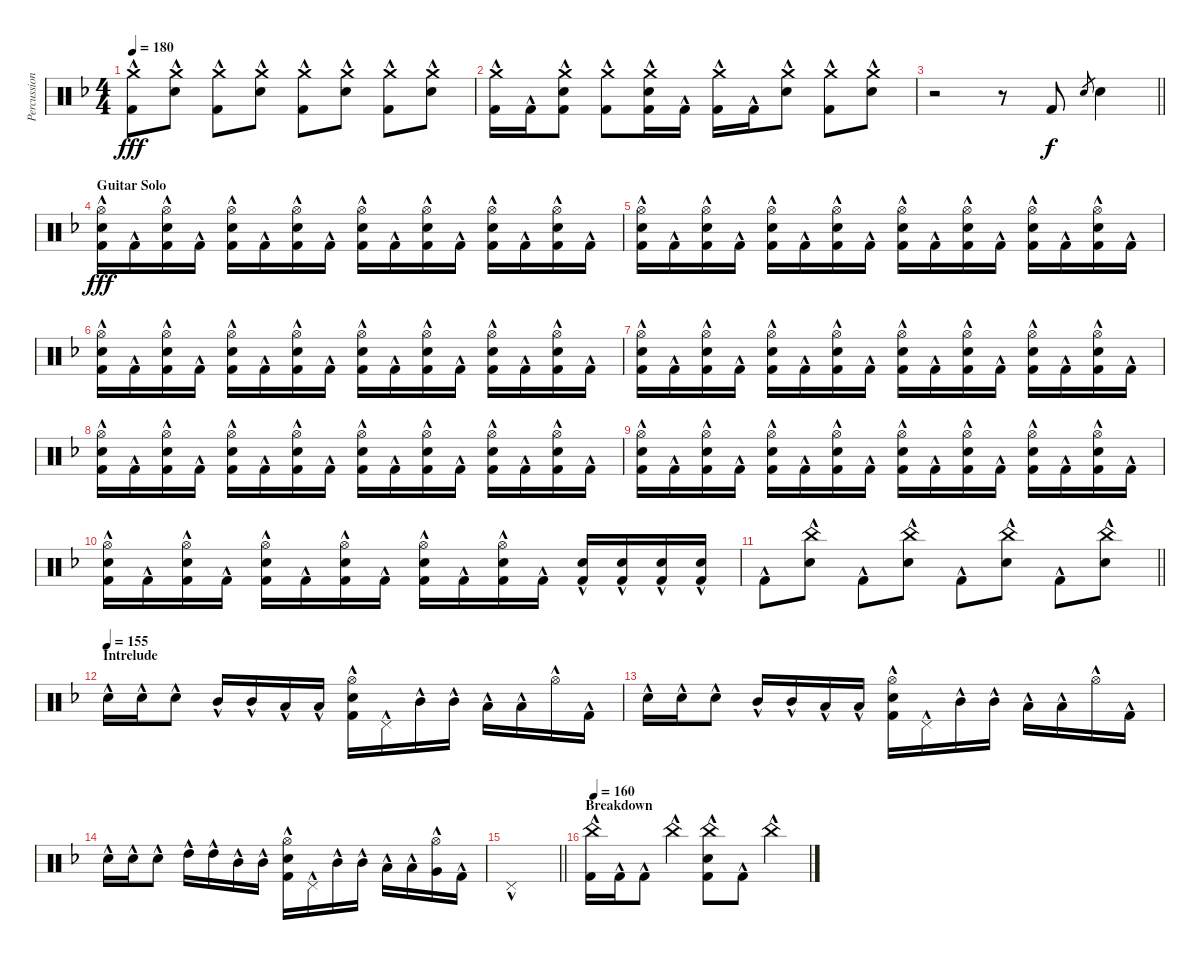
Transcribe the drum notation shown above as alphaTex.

\track ("Percussion" "Percussion") {instrument percussion}
\staff {score}
\articulation defaults
\ts (4 4)
\tempo 180
\clef neutral
\ks f
("Crash medium (hit)"{hac} "Kick (hit) 2"{hac}).8{dy fff} ("Crash medium (hit)"{hac} "Electric Snare (hit)"{hac}).8 ("Crash medium (hit)"{hac} "Kick (hit) 2"{hac}).8 ("Crash medium (hit)"{hac} "Electric Snare (hit)"{hac}).8 ("Crash medium (hit)"{hac} "Kick (hit) 2"{hac}).8 ("Crash medium (hit)"{hac} "Electric Snare (hit)"{hac}).8 ("Crash medium (hit)"{hac} "Kick (hit) 2"{hac}).8 ("Crash medium (hit)"{hac} "Electric Snare (hit)"{hac}).8 |
("Crash medium (hit)"{hac} "Kick (hit) 2"{hac}).16 "Kick (hit) 2"{hac}.16 ("Crash medium (hit)"{hac} "Electric Snare (hit)"{hac} "Kick (hit) 2"{hac}).8 ("Crash medium (hit)"{hac} "Kick (hit) 2"{hac}).8 ("Crash medium (hit)"{hac} "Electric Snare (hit)"{hac} "Kick (hit) 2"{hac}).16 "Kick (hit) 2"{hac}.16 ("Crash medium (hit)"{hac} "Kick (hit) 2"{hac}).16 "Kick (hit) 2"{hac}.16 ("Crash medium (hit)"{hac} "Electric Snare (hit)"{hac}).8 ("Crash medium (hit)"{hac} "Kick (hit) 2"{hac}).8 ("Crash medium (hit)"{hac} "Electric Snare (hit)"{hac}).8 |
\barLineRight lightlight
r.2 r.8 "Kick (hit) 2".8{dy f} "Electric Snare (hit)".8{gr} "Electric Snare (hit)".4 |
\section ("" "Guitar Solo")
("Hi-Hat (open)"{hac} "Electric Snare (hit)"{hac} "Kick (hit) 2"{hac}).16{dy fff} "Kick (hit) 2"{hac}.16 ("Hi-Hat (open)"{hac} "Electric Snare (hit)"{hac} "Kick (hit) 2"{hac}).16 "Kick (hit) 2"{hac}.16 ("Hi-Hat (open)"{hac} "Electric Snare (hit)"{hac} "Kick (hit) 2"{hac}).16 "Kick (hit) 2"{hac}.16 ("Hi-Hat (open)"{hac} "Electric Snare (hit)"{hac} "Kick (hit) 2"{hac}).16 "Kick (hit) 2"{hac}.16 ("Hi-Hat (open)"{hac} "Electric Snare (hit)"{hac} "Kick (hit) 2"{hac}).16 "Kick (hit) 2"{hac}.16 ("Hi-Hat (open)"{hac} "Electric Snare (hit)"{hac} "Kick (hit) 2"{hac}).16 "Kick (hit) 2"{hac}.16 ("Hi-Hat (open)"{hac} "Electric Snare (hit)"{hac} "Kick (hit) 2"{hac}).16 "Kick (hit) 2"{hac}.16 ("Hi-Hat (open)"{hac} "Electric Snare (hit)"{hac} "Kick (hit) 2"{hac}).16 "Kick (hit) 2"{hac}.16 |
("Hi-Hat (open)"{hac} "Electric Snare (hit)"{hac} "Kick (hit) 2"{hac}).16 "Kick (hit) 2"{hac}.16 ("Hi-Hat (open)"{hac} "Electric Snare (hit)"{hac} "Kick (hit) 2"{hac}).16 "Kick (hit) 2"{hac}.16 ("Hi-Hat (open)"{hac} "Electric Snare (hit)"{hac} "Kick (hit) 2"{hac}).16 "Kick (hit) 2"{hac}.16 ("Hi-Hat (open)"{hac} "Electric Snare (hit)"{hac} "Kick (hit) 2"{hac}).16 "Kick (hit) 2"{hac}.16 ("Hi-Hat (open)"{hac} "Electric Snare (hit)"{hac} "Kick (hit) 2"{hac}).16 "Kick (hit) 2"{hac}.16 ("Hi-Hat (open)"{hac} "Electric Snare (hit)"{hac} "Kick (hit) 2"{hac}).16 "Kick (hit) 2"{hac}.16 ("Hi-Hat (open)"{hac} "Electric Snare (hit)"{hac} "Kick (hit) 2"{hac}).16 "Kick (hit) 2"{hac}.16 ("Hi-Hat (open)"{hac} "Electric Snare (hit)"{hac} "Kick (hit) 2"{hac}).16 "Kick (hit) 2"{hac}.16 |
("Hi-Hat (open)"{hac} "Electric Snare (hit)"{hac} "Kick (hit) 2"{hac}).16 "Kick (hit) 2"{hac}.16 ("Hi-Hat (open)"{hac} "Electric Snare (hit)"{hac} "Kick (hit) 2"{hac}).16 "Kick (hit) 2"{hac}.16 ("Hi-Hat (open)"{hac} "Electric Snare (hit)"{hac} "Kick (hit) 2"{hac}).16 "Kick (hit) 2"{hac}.16 ("Hi-Hat (open)"{hac} "Electric Snare (hit)"{hac} "Kick (hit) 2"{hac}).16 "Kick (hit) 2"{hac}.16 ("Hi-Hat (open)"{hac} "Electric Snare (hit)"{hac} "Kick (hit) 2"{hac}).16 "Kick (hit) 2"{hac}.16 ("Hi-Hat (open)"{hac} "Electric Snare (hit)"{hac} "Kick (hit) 2"{hac}).16 "Kick (hit) 2"{hac}.16 ("Hi-Hat (open)"{hac} "Electric Snare (hit)"{hac} "Kick (hit) 2"{hac}).16 "Kick (hit) 2"{hac}.16 ("Hi-Hat (open)"{hac} "Electric Snare (hit)"{hac} "Kick (hit) 2"{hac}).16 "Kick (hit) 2"{hac}.16 |
("Hi-Hat (open)"{hac} "Electric Snare (hit)"{hac} "Kick (hit) 2"{hac}).16 "Kick (hit) 2"{hac}.16 ("Hi-Hat (open)"{hac} "Electric Snare (hit)"{hac} "Kick (hit) 2"{hac}).16 "Kick (hit) 2"{hac}.16 ("Hi-Hat (open)"{hac} "Electric Snare (hit)"{hac} "Kick (hit) 2"{hac}).16 "Kick (hit) 2"{hac}.16 ("Hi-Hat (open)"{hac} "Electric Snare (hit)"{hac} "Kick (hit) 2"{hac}).16 "Kick (hit) 2"{hac}.16 ("Hi-Hat (open)"{hac} "Electric Snare (hit)"{hac} "Kick (hit) 2"{hac}).16 "Kick (hit) 2"{hac}.16 ("Hi-Hat (open)"{hac} "Electric Snare (hit)"{hac} "Kick (hit) 2"{hac}).16 "Kick (hit) 2"{hac}.16 ("Hi-Hat (open)"{hac} "Electric Snare (hit)"{hac} "Kick (hit) 2"{hac}).16 "Kick (hit) 2"{hac}.16 ("Hi-Hat (open)"{hac} "Electric Snare (hit)"{hac} "Kick (hit) 2"{hac}).16 "Kick (hit) 2"{hac}.16 |
("Hi-Hat (open)"{hac} "Electric Snare (hit)"{hac} "Kick (hit) 2"{hac}).16 "Kick (hit) 2"{hac}.16 ("Hi-Hat (open)"{hac} "Electric Snare (hit)"{hac} "Kick (hit) 2"{hac}).16 "Kick (hit) 2"{hac}.16 ("Hi-Hat (open)"{hac} "Electric Snare (hit)"{hac} "Kick (hit) 2"{hac}).16 "Kick (hit) 2"{hac}.16 ("Hi-Hat (open)"{hac} "Electric Snare (hit)"{hac} "Kick (hit) 2"{hac}).16 "Kick (hit) 2"{hac}.16 ("Hi-Hat (open)"{hac} "Electric Snare (hit)"{hac} "Kick (hit) 2"{hac}).16 "Kick (hit) 2"{hac}.16 ("Hi-Hat (open)"{hac} "Electric Snare (hit)"{hac} "Kick (hit) 2"{hac}).16 "Kick (hit) 2"{hac}.16 ("Hi-Hat (open)"{hac} "Electric Snare (hit)"{hac} "Kick (hit) 2"{hac}).16 "Kick (hit) 2"{hac}.16 ("Hi-Hat (open)"{hac} "Electric Snare (hit)"{hac} "Kick (hit) 2"{hac}).16 "Kick (hit) 2"{hac}.16 |
("Hi-Hat (open)"{hac} "Electric Snare (hit)"{hac} "Kick (hit) 2"{hac}).16 "Kick (hit) 2"{hac}.16 ("Hi-Hat (open)"{hac} "Electric Snare (hit)"{hac} "Kick (hit) 2"{hac}).16 "Kick (hit) 2"{hac}.16 ("Hi-Hat (open)"{hac} "Electric Snare (hit)"{hac} "Kick (hit) 2"{hac}).16 "Kick (hit) 2"{hac}.16 ("Hi-Hat (open)"{hac} "Electric Snare (hit)"{hac} "Kick (hit) 2"{hac}).16 "Kick (hit) 2"{hac}.16 ("Hi-Hat (open)"{hac} "Electric Snare (hit)"{hac} "Kick (hit) 2"{hac}).16 "Kick (hit) 2"{hac}.16 ("Hi-Hat (open)"{hac} "Electric Snare (hit)"{hac} "Kick (hit) 2"{hac}).16 "Kick (hit) 2"{hac}.16 ("Hi-Hat (open)"{hac} "Electric Snare (hit)"{hac} "Kick (hit) 2"{hac}).16 "Kick (hit) 2"{hac}.16 ("Hi-Hat (open)"{hac} "Electric Snare (hit)"{hac} "Kick (hit) 2"{hac}).16 "Kick (hit) 2"{hac}.16 |
("Hi-Hat (open)"{hac} "Electric Snare (hit)"{hac} "Kick (hit) 2"{hac}).16 "Kick (hit) 2"{hac}.16 ("Hi-Hat (open)"{hac} "Electric Snare (hit)"{hac} "Kick (hit) 2"{hac}).16 "Kick (hit) 2"{hac}.16 ("Hi-Hat (open)"{hac} "Electric Snare (hit)"{hac} "Kick (hit) 2"{hac}).16 "Kick (hit) 2"{hac}.16 ("Hi-Hat (open)"{hac} "Electric Snare (hit)"{hac} "Kick (hit) 2"{hac}).16 "Kick (hit) 2"{hac}.16 ("Hi-Hat (open)"{hac} "Electric Snare (hit)"{hac} "Kick (hit) 2"{hac}).16 "Kick (hit) 2"{hac}.16 ("Hi-Hat (open)"{hac} "Electric Snare (hit)"{hac} "Kick (hit) 2"{hac}).16 "Kick (hit) 2"{hac}.16 ("Electric Snare (hit)"{hac} "Kick (hit) 2"{hac}).16 ("Electric Snare (hit)"{hac} "Kick (hit) 2"{hac}).16 ("Electric Snare (hit)"{hac} "Kick (hit) 2"{hac}).16 ("Electric Snare (hit)"{hac} "Kick (hit) 2"{hac}).16 |
\barLineRight lightlight "Kick (hit) 2"{hac}.8
("China (hit)"{hac} "Electric Snare (hit)"{hac}).8 "Kick (hit) 2"{hac}.8 ("China (hit)"{hac} "Electric Snare (hit)"{hac}).8 "Kick (hit) 2"{hac}.8 ("China (hit)"{hac} "Electric Snare (hit)"{hac}).8 "Kick (hit) 2"{hac}.8 ("China (hit)"{hac} "Electric Snare (hit)"{hac}).8 |
\section ("" "Intrelude")
\tempo (155)
"Electric Snare (hit)"{hac}.16 "Electric Snare (hit)"{hac}.16 "Electric Snare (hit)"{hac}.8 "Mid Tom (hit)"{hac}.16 "Mid Tom (hit)"{hac}.16 "Low Tom (hit)"{hac}.16 "Low Tom (hit)"{hac}.16 ("Hi-Hat (open)"{hac} "Electric Snare (hit)"{hac} "Kick (hit) 2"{hac}).16 "Pedal Hi-Hat (hit)"{hac}.16 "Mid Tom (hit)"{hac}.16 "Mid Tom (hit)"{hac}.16 "Low Tom (hit)"{hac}.16 "Low Tom (hit)"{hac}.16 "Hi-Hat (open)"{hac}.16 "Kick (hit) 2"{hac}.16 |
"Electric Snare (hit)"{hac}.16 "Electric Snare (hit)"{hac}.16 "Electric Snare (hit)"{hac}.8 "Mid Tom (hit)"{hac}.16 "Mid Tom (hit)"{hac}.16 "Low Tom (hit)"{hac}.16 "Low Tom (hit)"{hac}.16 ("Hi-Hat (open)"{hac} "Electric Snare (hit)"{hac} "Kick (hit) 2"{hac}).16 "Pedal Hi-Hat (hit)"{hac}.16 "Mid Tom (hit)"{hac}.16 "Mid Tom (hit)"{hac}.16 "Low Tom (hit)"{hac}.16 "Low Tom (hit)"{hac}.16 "Hi-Hat (open)"{hac}.16 "Kick (hit) 2"{hac}.16 |
"Electric Snare (hit)"{hac}.16 "Electric Snare (hit)"{hac}.16 "Electric Snare (hit)"{hac}.8 "High Tom (hit)"{hac}.16 "High Tom (hit)"{hac}.16 "Mid Tom (hit)"{hac}.16 "Mid Tom (hit)"{hac}.16 ("Hi-Hat (open)"{hac} "Electric Snare (hit)"{hac} "Kick (hit) 2"{hac}).16 "Pedal Hi-Hat (hit)"{hac}.16 "Mid Tom (hit)"{hac}.16 "Mid Tom (hit)"{hac}.16 "Low Tom (hit)"{hac}.16 "Low Tom (hit)"{hac}.16 ("Hi-Hat (open)"{hac} "Very Low Tom (hit)"{hac}).16 "Kick (hit) 2"{hac}.16 |
\barLineRight lightlight "Pedal Hi-Hat (hit)"{hac}.1
|
\section ("" "Breakdown")
\tempo 160
("China (hit)"{hac} "Kick (hit) 2"{hac}).16 "Kick (hit) 2"{hac}.16 "Kick (hit) 2"{hac}.8 "China (hit)"{hac}.4 ("China (hit)"{hac} "Electric Snare (hit)"{hac} "Kick (hit) 2"{hac}).8 "Kick (hit) 2"{hac}.8 "China (hit)"{hac}.4
